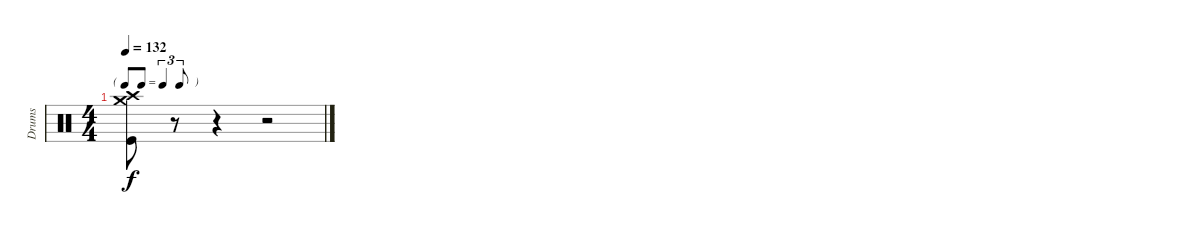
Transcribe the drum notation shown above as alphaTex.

\track ("Drums" "Drums") {instrument percussion}
\staff {score}
\articulation defaults
\ts (4 4)
\tf triplet8th
\tempo 132
\clef neutral
\ks c
("Crash high (hit)" "Crash medium (hit)" "Kick (hit)").8{dy f} r.8 r.4 r.2
